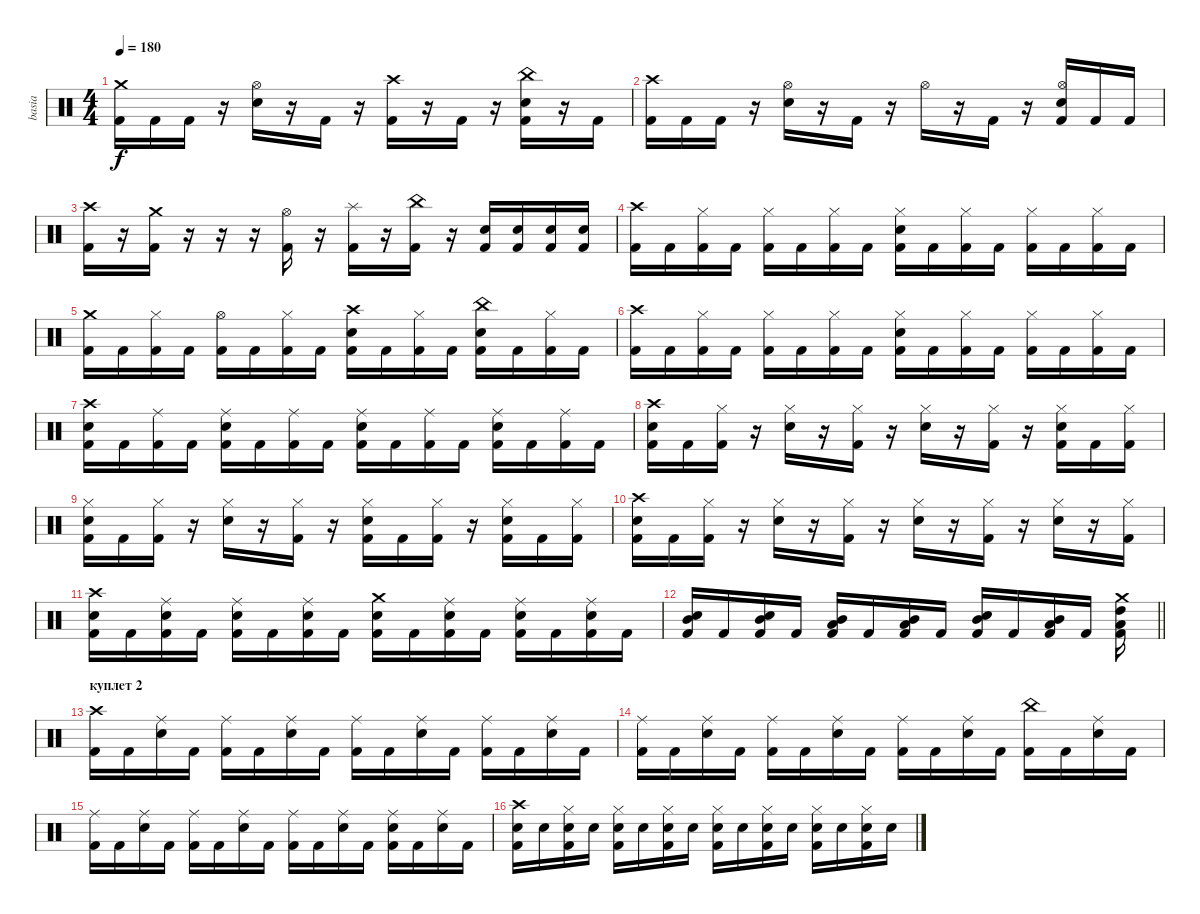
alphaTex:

\track ("basia" "basia") {instrument percussion}
\staff {score}
\articulation defaults
\ts (4 4)
\tempo 180
\clef neutral
\ks c
("Crash medium (hit)" "Kick (hit) 2").16{dy f} "Kick (hit) 2".16 "Kick (hit) 2".16 r.16 ("Hi-Hat (open)" "Snare (hit) 2").16 r.16 "Kick (hit) 2".16 r.16 ("Crash high (hit)" "Kick (hit) 2").16 r.16 "Kick (hit) 2".16 r.16 ("China (hit)" "Snare (hit) 2" "Kick (hit) 2").16 r.16 "Kick (hit) 2".16 |
("Crash high (hit)" "Kick (hit) 2").16 "Kick (hit) 2".16 "Kick (hit) 2".16 r.16 ("Hi-Hat (open)" "Snare (hit) 2").16 r.16 "Kick (hit) 2".16 r.16 "Hi-Hat (open)".16 r.16 "Kick (hit) 2".16 r.16 ("Hi-Hat (open)" "Snare (hit) 2" "Kick (hit) 2").16 "Kick (hit) 2".16 "Kick (hit) 2".16 |
("Crash high (hit)" "Kick (hit) 2").16 r.16 ("Crash medium (hit)" "Kick (hit) 2").16 r.16 r.16 r.16 ("Hi-Hat (open)" "Kick (hit) 2").16 r.16 ("Splash (hit)" "Kick (hit) 2").16 r.16 ("China (hit)" "Kick (hit) 2").16 r.16 ("Snare (hit) 2" "Kick (hit) 2").16 ("Snare (hit) 2" "Kick (hit) 2").16 ("Snare (hit) 2" "Kick (hit) 2").16 ("Snare (hit) 2" "Kick (hit) 2").16 |
("Crash high (hit)" "Kick (hit) 2").16 "Kick (hit) 2".16 ("Hi-Hat (closed)" "Kick (hit) 2").16 "Kick (hit) 2".16 ("Hi-Hat (closed)" "Kick (hit) 2").16 "Kick (hit) 2".16 ("Hi-Hat (closed)" "Kick (hit) 2").16 "Kick (hit) 2".16 ("Hi-Hat (closed)" "Snare (hit) 2" "Kick (hit) 2").16 "Kick (hit) 2".16 ("Hi-Hat (closed)" "Kick (hit) 2").16 "Kick (hit) 2".16 ("Hi-Hat (closed)" "Kick (hit) 2").16 "Kick (hit) 2".16 ("Hi-Hat (closed)" "Kick (hit) 2").16 "Kick (hit) 2".16 |
("Crash medium (hit)" "Kick (hit) 2").16 "Kick (hit) 2".16 ("Hi-Hat (closed)" "Kick (hit) 2").16 "Kick (hit) 2".16 ("Hi-Hat (open)" "Kick (hit) 2").16 "Kick (hit) 2".16 ("Hi-Hat (closed)" "Kick (hit) 2").16 "Kick (hit) 2".16 ("Crash high (hit)" "Snare (hit) 2" "Kick (hit) 2").16 "Kick (hit) 2".16 ("Hi-Hat (closed)" "Kick (hit) 2").16 "Kick (hit) 2".16 ("China (hit)" "Snare (hit) 2" "Kick (hit) 2").16 "Kick (hit) 2".16 ("Hi-Hat (closed)" "Kick (hit) 2").16 "Kick (hit) 2".16 |
("Crash high (hit)" "Kick (hit) 2").16 "Kick (hit) 2".16 ("Hi-Hat (closed)" "Kick (hit) 2").16 "Kick (hit) 2".16 ("Hi-Hat (closed)" "Kick (hit) 2").16 "Kick (hit) 2".16 ("Hi-Hat (closed)" "Kick (hit) 2").16 "Kick (hit) 2".16 ("Hi-Hat (closed)" "Snare (hit) 2" "Kick (hit) 2").16 "Kick (hit) 2".16 ("Hi-Hat (closed)" "Kick (hit) 2").16 "Kick (hit) 2".16 ("Hi-Hat (closed)" "Kick (hit) 2").16 "Kick (hit) 2".16 ("Hi-Hat (closed)" "Kick (hit) 2").16 "Kick (hit) 2".16 |
("Crash high (hit)" "Snare (hit) 2" "Kick (hit) 2").16 "Kick (hit) 2".16 ("Ride (middle)" "Kick (hit) 2").16 "Kick (hit) 2".16 ("Ride (middle)" "Snare (hit) 2" "Kick (hit) 2").16 "Kick (hit) 2".16 ("Ride (middle)" "Kick (hit) 2").16 "Kick (hit) 2".16 ("Ride (middle)" "Snare (hit) 2" "Kick (hit) 2").16 "Kick (hit) 2".16 ("Ride (middle)" "Kick (hit) 2").16 "Kick (hit) 2".16 ("Ride (middle)" "Snare (hit) 2" "Kick (hit) 2").16 "Kick (hit) 2".16 ("Ride (middle)" "Kick (hit) 2").16 "Kick (hit) 2".16 |
("Crash high (hit)" "Snare (hit) 2" "Kick (hit) 2").16 "Kick (hit) 2".16 ("Hi-Hat (closed)" "Kick (hit) 2").16 r.16 ("Hi-Hat (closed)" "Snare (hit) 2").16 r.16 ("Hi-Hat (closed)" "Kick (hit) 2").16 r.16 ("Hi-Hat (closed)" "Snare (hit) 2").16 r.16 ("Hi-Hat (closed)" "Kick (hit) 2").16 r.16 ("Hi-Hat (closed)" "Snare (hit) 2" "Kick (hit) 2").16 "Kick (hit) 2".16 ("Hi-Hat (closed)" "Kick (hit) 2").16 |
("Hi-Hat (closed)" "Snare (hit) 2" "Kick (hit) 2").16 "Kick (hit) 2".16 ("Hi-Hat (closed)" "Kick (hit) 2").16 r.16 ("Hi-Hat (closed)" "Snare (hit) 2").16 r.16 ("Hi-Hat (closed)" "Kick (hit) 2").16 r.16 ("Hi-Hat (closed)" "Snare (hit) 2" "Kick (hit) 2").16 "Kick (hit) 2".16 ("Hi-Hat (closed)" "Kick (hit) 2").16 r.16 ("Hi-Hat (closed)" "Snare (hit) 2" "Kick (hit) 2").16 "Kick (hit) 2".16 ("Hi-Hat (closed)" "Kick (hit) 2").16 |
("Crash high (hit)" "Snare (hit) 2" "Kick (hit) 2").16 "Kick (hit) 2".16 ("Hi-Hat (closed)" "Kick (hit) 2").16 r.16 ("Hi-Hat (closed)" "Snare (hit) 2").16 r.16 ("Hi-Hat (closed)" "Kick (hit) 2").16 r.16 ("Hi-Hat (closed)" "Snare (hit) 2").16 r.16 ("Hi-Hat (closed)" "Kick (hit) 2").16 r.16 ("Hi-Hat (closed)" "Snare (hit) 2").16 r.16 ("Hi-Hat (closed)" "Kick (hit) 2").16 |
("Crash high (hit)" "Snare (hit) 2" "Kick (hit) 2").16 "Kick (hit) 2".16 ("Ride (middle)" "Snare (hit) 2" "Kick (hit) 2").16 "Kick (hit) 2".16 ("Ride (middle)" "Snare (hit) 2" "Kick (hit) 2").16 "Kick (hit) 2".16 ("Ride (middle)" "Snare (hit) 2" "Kick (hit) 2").16 "Kick (hit) 2".16 ("Crash medium (hit)" "Snare (hit) 2" "Kick (hit) 2").16 "Kick (hit) 2".16 ("Ride (middle)" "Snare (hit) 2" "Kick (hit) 2").16 "Kick (hit) 2".16 ("Ride (middle)" "Snare (hit) 2" "Kick (hit) 2").16 "Kick (hit) 2".16 ("Ride (middle)" "Snare (hit) 2" "Kick (hit) 2").16 "Kick (hit) 2".16 |
\barLineRight lightlight
("Snare (hit) 2" "Mid Tom (hit)" "Kick (hit) 2").16 "Kick (hit) 2".16 ("Snare (hit) 2" "Mid Tom (hit)" "Kick (hit) 2").16 "Kick (hit) 2".16 ("Low Tom (hit)" "Mid Tom (hit)" "Kick (hit) 2").16 "Kick (hit) 2".16 ("Low Tom (hit)" "Mid Tom (hit)" "Kick (hit) 2").16 "Kick (hit) 2".16 ("Snare (hit) 2" "Mid Tom (hit)" "Kick (hit) 2").16 "Kick (hit) 2".16 ("Mid Tom (hit)" "Low Tom (hit)" "Kick (hit) 2").16 "Kick (hit) 2".16 ("Crash medium (hit)" "High Tom (hit)" "Low Tom (hit)" "Kick (hit) 2").16 |
\section ("" "куплет 2")
("Crash high (hit)" "Kick (hit) 2").16 "Kick (hit) 2".16 ("Ride (middle)" "Snare (hit) 2").16 "Kick (hit) 2".16 ("Ride (middle)" "Kick (hit) 2").16 "Kick (hit) 2".16 ("Ride (middle)" "Snare (hit) 2").16 "Kick (hit) 2".16 ("Ride (middle)" "Kick (hit) 2").16 "Kick (hit) 2".16 ("Ride (middle)" "Snare (hit) 2").16 "Kick (hit) 2".16 ("Ride (middle)" "Kick (hit) 2").16 "Kick (hit) 2".16 ("Ride (middle)" "Snare (hit) 2").16 "Kick (hit) 2".16 |
("Ride (middle)" "Kick (hit) 2").16 "Kick (hit) 2".16 ("Ride (middle)" "Snare (hit) 2").16 "Kick (hit) 2".16 ("Ride (middle)" "Kick (hit) 2").16 "Kick (hit) 2".16 ("Ride (middle)" "Snare (hit) 2").16 "Kick (hit) 2".16 ("Ride (middle)" "Kick (hit) 2").16 "Kick (hit) 2".16 ("Ride (middle)" "Snare (hit) 2").16 "Kick (hit) 2".16 ("China (hit)" "Kick (hit) 2").16 "Kick (hit) 2".16 ("Ride (middle)" "Snare (hit) 2").16 "Kick (hit) 2".16 |
("Ride (middle)" "Kick (hit) 2").16 "Kick (hit) 2".16 ("Ride (middle)" "Snare (hit) 2").16 "Kick (hit) 2".16 ("Ride (middle)" "Kick (hit) 2").16 "Kick (hit) 2".16 ("Ride (middle)" "Snare (hit) 2").16 "Kick (hit) 2".16 ("Ride (middle)" "Kick (hit) 2").16 "Kick (hit) 2".16 ("Ride (middle)" "Snare (hit) 2").16 "Kick (hit) 2".16 ("Ride (middle)" "Snare (hit) 2" "Kick (hit) 2").16 "Kick (hit) 2".16 ("Ride (middle)" "Snare (hit) 2").16 "Kick (hit) 2".16 |
("Crash high (hit)" "Snare (hit) 2" "Kick (hit) 2").16 "Snare (hit) 2".16 ("Hi-Hat (closed)" "Snare (hit) 2" "Kick (hit) 2").16 "Snare (hit) 2".16 ("Hi-Hat (closed)" "Snare (hit) 2" "Kick (hit) 2").16 "Snare (hit) 2".16 ("Hi-Hat (closed)" "Snare (hit) 2" "Kick (hit) 2").16 "Snare (hit) 2".16 ("Hi-Hat (closed)" "Snare (hit) 2" "Kick (hit) 2").16 "Snare (hit) 2".16 ("Hi-Hat (closed)" "Snare (hit) 2" "Kick (hit) 2").16 "Snare (hit) 2".16 ("Hi-Hat (closed)" "Snare (hit) 2" "Kick (hit) 2").16 "Snare (hit) 2".16 ("Hi-Hat (closed)" "Snare (hit) 2" "Kick (hit) 2").16 "Snare (hit) 2".16
